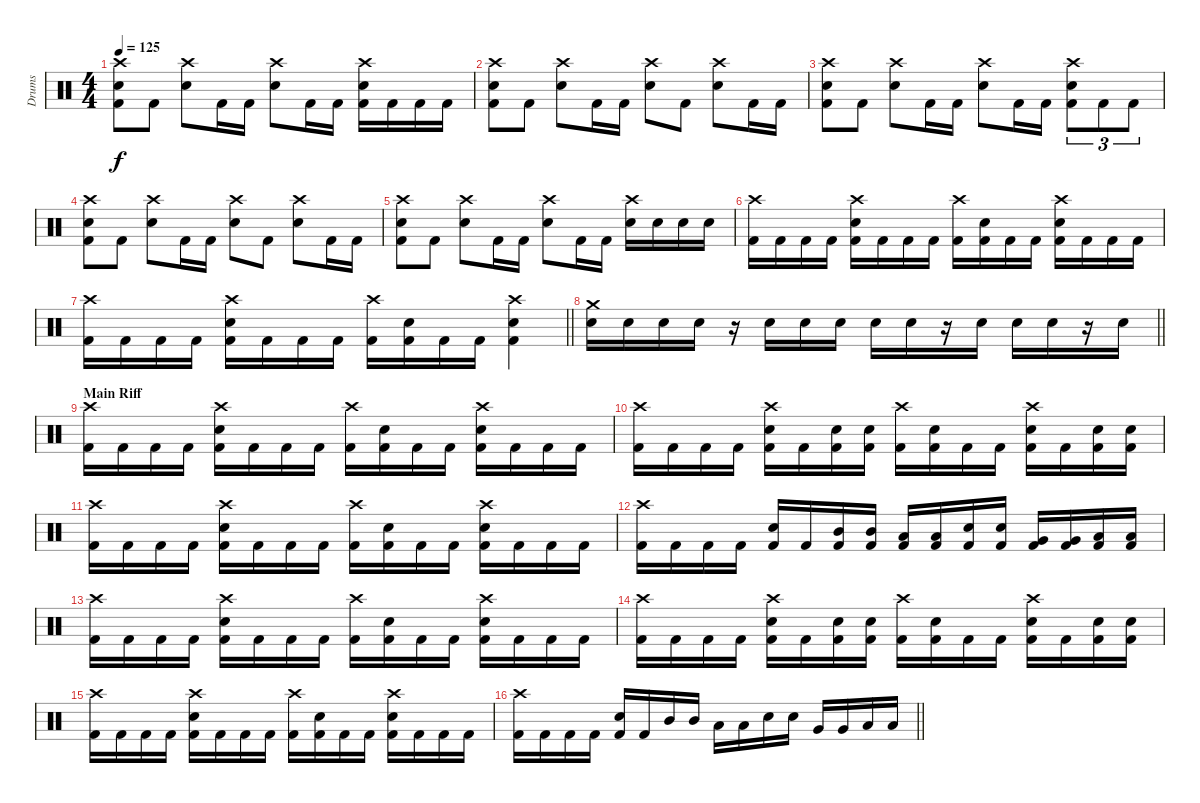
\track ("Drums" "Drums") {instrument percussion}
\staff {score}
\articulation defaults
\ts (4 4)
\tempo 125
\clef neutral
\ks c
("Crash high (hit)" "Snare (hit) 2" "Kick (hit) 2").8{dy f} "Kick (hit) 2".8 ("Crash high (hit)" "Snare (hit) 2").8 "Kick (hit) 2".16 "Kick (hit) 2".16 ("Crash high (hit)" "Snare (hit) 2").8 "Kick (hit) 2".16 "Kick (hit) 2".16 ("Crash high (hit)" "Snare (hit) 2" "Kick (hit) 2").16 "Kick (hit) 2".16 "Kick (hit) 2".16 "Kick (hit) 2".16 |
("Crash high (hit)" "Snare (hit) 2" "Kick (hit) 2").8 "Kick (hit) 2".8 ("Crash high (hit)" "Snare (hit) 2").8 "Kick (hit) 2".16 "Kick (hit) 2".16 ("Crash high (hit)" "Snare (hit) 2").8 "Kick (hit) 2".8 ("Crash high (hit)" "Snare (hit) 2").8 "Kick (hit) 2".16 "Kick (hit) 2".16 |
("Crash high (hit)" "Snare (hit) 2" "Kick (hit) 2").8 "Kick (hit) 2".8 ("Crash high (hit)" "Snare (hit) 2").8 "Kick (hit) 2".16 "Kick (hit) 2".16 ("Crash high (hit)" "Snare (hit) 2").8 "Kick (hit) 2".16 "Kick (hit) 2".16 ("Crash high (hit)" "Snare (hit) 2" "Kick (hit) 2").8{tu (3 2)} "Kick (hit) 2".8{tu (3 2)} "Kick (hit) 2".8{tu (3 2)} |
("Crash high (hit)" "Snare (hit) 2" "Kick (hit) 2").8 "Kick (hit) 2".8 ("Crash high (hit)" "Snare (hit) 2").8 "Kick (hit) 2".16 "Kick (hit) 2".16 ("Crash high (hit)" "Snare (hit) 2").8 "Kick (hit) 2".8 ("Crash high (hit)" "Snare (hit) 2").8 "Kick (hit) 2".16 "Kick (hit) 2".16 |
("Crash high (hit)" "Snare (hit) 2" "Kick (hit) 2").8 "Kick (hit) 2".8 ("Crash high (hit)" "Snare (hit) 2").8 "Kick (hit) 2".16 "Kick (hit) 2".16 ("Crash high (hit)" "Snare (hit) 2").8 "Kick (hit) 2".16 "Kick (hit) 2".16 ("Crash high (hit)" "Snare (hit) 2").16 "Snare (hit) 2".16 "Snare (hit) 2".16 "Snare (hit) 2".16 |
("Crash high (hit)" "Kick (hit) 2").16 "Kick (hit) 2".16 "Kick (hit) 2".16 "Kick (hit) 2".16 ("Crash high (hit)" "Snare (hit) 2" "Kick (hit) 2").16 "Kick (hit) 2".16 "Kick (hit) 2".16 "Kick (hit) 2".16 ("Crash high (hit)" "Kick (hit) 2").16 ("Snare (hit) 2" "Kick (hit) 2").16 "Kick (hit) 2".16 "Kick (hit) 2".16 ("Crash high (hit)" "Snare (hit) 2" "Kick (hit) 2").16 "Kick (hit) 2".16 "Kick (hit) 2".16 "Kick (hit) 2".16 |
\barLineRight lightlight
("Crash high (hit)" "Kick (hit) 2").16 "Kick (hit) 2".16 "Kick (hit) 2".16 "Kick (hit) 2".16 ("Crash high (hit)" "Snare (hit) 2" "Kick (hit) 2").16 "Kick (hit) 2".16 "Kick (hit) 2".16 "Kick (hit) 2".16 ("Crash high (hit)" "Kick (hit) 2").16 ("Snare (hit) 2" "Kick (hit) 2").16 "Kick (hit) 2".16 "Kick (hit) 2".16 ("Crash high (hit)" "Snare (hit) 2" "Kick (hit) 2").4 |
\section ("" "")
\barLineRight lightlight
("Crash medium (hit)" "Snare (hit) 2").16 "Snare (hit) 2".16 "Snare (hit) 2".16 "Snare (hit) 2".16 r.16 "Snare (hit) 2".16 "Snare (hit) 2".16 "Snare (hit) 2".16 "Snare (hit) 2".16 "Snare (hit) 2".16 r.16 "Snare (hit) 2".16 "Snare (hit) 2".16 "Snare (hit) 2".16 r.16 "Snare (hit) 2".16 |
\section ("" "Main Riff")
("Crash high (hit)" "Kick (hit) 2").16 "Kick (hit) 2".16 "Kick (hit) 2".16 "Kick (hit) 2".16 ("Crash high (hit)" "Snare (hit) 2" "Kick (hit) 2").16 "Kick (hit) 2".16 "Kick (hit) 2".16 "Kick (hit) 2".16 ("Crash high (hit)" "Kick (hit) 2").16 ("Snare (hit) 2" "Kick (hit) 2").16 "Kick (hit) 2".16 "Kick (hit) 2".16 ("Crash high (hit)" "Snare (hit) 2" "Kick (hit) 2").16 "Kick (hit) 2".16 "Kick (hit) 2".16 "Kick (hit) 2".16 |
("Crash high (hit)" "Kick (hit) 2").16 "Kick (hit) 2".16 "Kick (hit) 2".16 "Kick (hit) 2".16 ("Crash high (hit)" "Snare (hit) 2" "Kick (hit) 2").16 "Kick (hit) 2".16 ("Snare (hit) 2" "Kick (hit) 2").16 ("Snare (hit) 2" "Kick (hit) 2").16 ("Crash high (hit)" "Kick (hit) 2").16 ("Snare (hit) 2" "Kick (hit) 2").16 "Kick (hit) 2".16 "Kick (hit) 2".16 ("Crash high (hit)" "Snare (hit) 2" "Kick (hit) 2").16 "Kick (hit) 2".16 ("Snare (hit) 2" "Kick (hit) 2").16 ("Snare (hit) 2" "Kick (hit) 2").16 |
("Crash high (hit)" "Kick (hit) 2").16 "Kick (hit) 2".16 "Kick (hit) 2".16 "Kick (hit) 2".16 ("Crash high (hit)" "Snare (hit) 2" "Kick (hit) 2").16 "Kick (hit) 2".16 "Kick (hit) 2".16 "Kick (hit) 2".16 ("Crash high (hit)" "Kick (hit) 2").16 ("Snare (hit) 2" "Kick (hit) 2").16 "Kick (hit) 2".16 "Kick (hit) 2".16 ("Crash high (hit)" "Snare (hit) 2" "Kick (hit) 2").16 "Kick (hit) 2".16 "Kick (hit) 2".16 "Kick (hit) 2".16 |
("Crash high (hit)" "Kick (hit) 2").16 "Kick (hit) 2".16 "Kick (hit) 2".16 "Kick (hit) 2".16 ("Snare (hit) 2" "Kick (hit) 2").16 "Kick (hit) 2".16 ("Mid Tom (hit)" "Kick (hit) 2").16 ("Mid Tom (hit)" "Kick (hit) 2").16 ("Low Tom (hit)" "Kick (hit) 2").16 ("Low Tom (hit)" "Kick (hit) 2").16 ("Snare (hit) 2" "Kick (hit) 2").16 ("Snare (hit) 2" "Kick (hit) 2").16 ("Very Low Tom (hit)" "Kick (hit) 2").16 ("Very Low Tom (hit)" "Kick (hit) 2").16 ("Low Floor Tom (hit)" "Kick (hit) 2").16 ("Low Floor Tom (hit)" "Kick (hit) 2").16 |
("Crash high (hit)" "Kick (hit) 2").16 "Kick (hit) 2".16 "Kick (hit) 2".16 "Kick (hit) 2".16 ("Crash high (hit)" "Electric Snare (hit)" "Kick (hit) 2").16 "Kick (hit) 2".16 "Kick (hit) 2".16 "Kick (hit) 2".16 ("Crash high (hit)" "Kick (hit) 2").16 ("Electric Snare (hit)" "Kick (hit) 2").16 "Kick (hit) 2".16 "Kick (hit) 2".16 ("Crash high (hit)" "Electric Snare (hit)" "Kick (hit) 2").16 "Kick (hit) 2".16 "Kick (hit) 2".16 "Kick (hit) 2".16 |
("Crash high (hit)" "Kick (hit) 2").16 "Kick (hit) 2".16 "Kick (hit) 2".16 "Kick (hit) 2".16 ("Crash high (hit)" "Electric Snare (hit)" "Kick (hit) 2").16 "Kick (hit) 2".16 ("Electric Snare (hit)" "Kick (hit) 2").16 ("Electric Snare (hit)" "Kick (hit) 2").16 ("Crash high (hit)" "Kick (hit) 2").16 ("Electric Snare (hit)" "Kick (hit) 2").16 "Kick (hit) 2".16 "Kick (hit) 2".16 ("Crash high (hit)" "Electric Snare (hit)" "Kick (hit) 2").16 "Kick (hit) 2".16 ("Electric Snare (hit)" "Kick (hit) 2").16 ("Electric Snare (hit)" "Kick (hit) 2").16 |
("Crash high (hit)" "Kick (hit) 2").16 "Kick (hit) 2".16 "Kick (hit) 2".16 "Kick (hit) 2".16 ("Crash high (hit)" "Electric Snare (hit)" "Kick (hit) 2").16 "Kick (hit) 2".16 "Kick (hit) 2".16 "Kick (hit) 2".16 ("Crash high (hit)" "Kick (hit) 2").16 ("Electric Snare (hit)" "Kick (hit) 2").16 "Kick (hit) 2".16 "Kick (hit) 2".16 ("Crash high (hit)" "Electric Snare (hit)" "Kick (hit) 2").16 "Kick (hit) 2".16 "Kick (hit) 2".16 "Kick (hit) 2".16 |
\barLineRight lightlight
("Crash high (hit)" "Kick (hit) 2").16 "Kick (hit) 2".16 "Kick (hit) 2".16 "Kick (hit) 2".16 ("Snare (hit) 2" "Kick (hit) 2").16 "Kick (hit) 2".16 "Mid Tom (hit)".16 "Mid Tom (hit)".16 "Low Tom (hit)".16 "Low Tom (hit)".16 "Snare (hit) 2".16 "Snare (hit) 2".16 "Very Low Tom (hit)".16 "Very Low Tom (hit)".16 "Low Floor Tom (hit)".16 "Low Floor Tom (hit)".16
